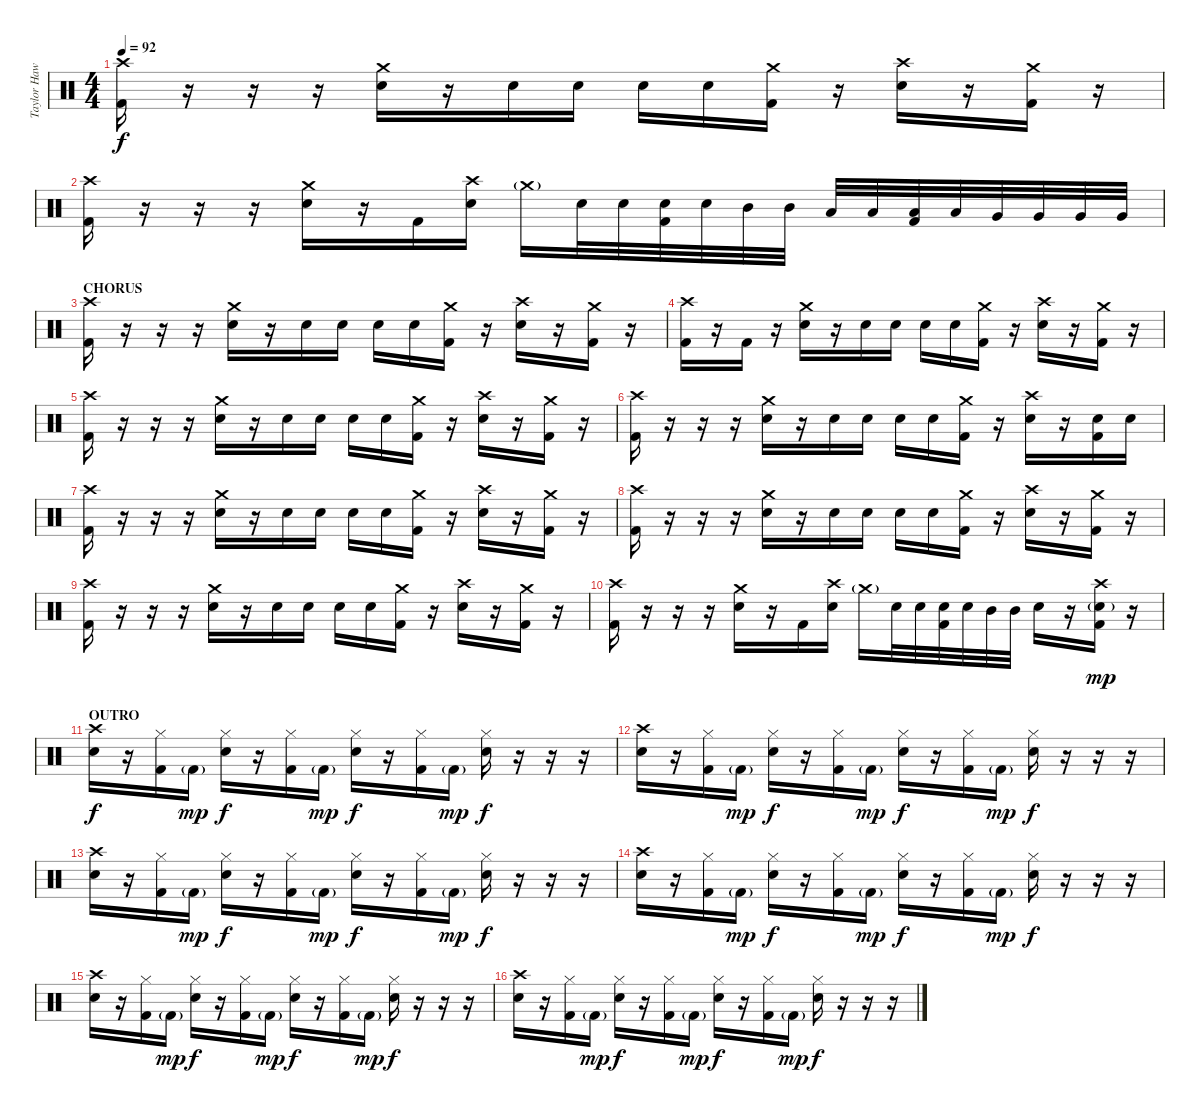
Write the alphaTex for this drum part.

\track ("Taylor Hawkins (Drums)" "Taylor Haw") {instrument percussion}
\staff {score}
\articulation defaults
\ts (4 4)
\tempo 92
\clef neutral
\ks c
("Crash high (hit)" "Kick (hit) 2").16{dy f} r.16 r.16 r.16 ("Crash medium (hit)" "Electric Snare (hit)").16 r.16 "Electric Snare (hit)".16 "Electric Snare (hit)".16 "Electric Snare (hit)".16 "Electric Snare (hit)".16 ("Crash medium (hit)" "Kick (hit) 2").16 r.16 ("Crash high (hit)" "Electric Snare (hit)").16 r.16 ("Crash medium (hit)" "Kick (hit) 2").16 r.16 |
("Crash high (hit)" "Kick (hit) 2").16 r.16 r.16 r.16 ("Crash medium (hit)" "Electric Snare (hit)").16 r.16 "Kick (hit) 2".16 ("Crash high (hit)" "Electric Snare (hit)").16 "Crash medium (hit)"{g}.16 "Electric Snare (hit)".32 "Electric Snare (hit)".32 ("Electric Snare (hit)" "Kick (hit) 2").32 "Electric Snare (hit)".32 "Mid Tom (hit)".32 "Mid Tom (hit)".32 "Low Tom (hit)".32 "Low Tom (hit)".32 ("Low Tom (hit)" "Kick (hit) 2").32 "Low Tom (hit)".32 "Very Low Tom (hit)".32 "Very Low Tom (hit)".32 "Very Low Tom (hit)".32 "Very Low Tom (hit)".32 |
\section ("" "CHORUS")
("Crash high (hit)" "Kick (hit) 2").16 r.16 r.16 r.16 ("Crash medium (hit)" "Electric Snare (hit)").16 r.16 "Electric Snare (hit)".16 "Electric Snare (hit)".16 "Electric Snare (hit)".16 "Electric Snare (hit)".16 ("Crash medium (hit)" "Kick (hit) 2").16 r.16 ("Crash high (hit)" "Electric Snare (hit)").16 r.16 ("Crash medium (hit)" "Kick (hit) 2").16 r.16 |
("Crash high (hit)" "Kick (hit) 2").16 r.16 "Kick (hit) 2".16 r.16 ("Crash medium (hit)" "Electric Snare (hit)").16 r.16 "Electric Snare (hit)".16 "Electric Snare (hit)".16 "Electric Snare (hit)".16 "Electric Snare (hit)".16 ("Crash medium (hit)" "Kick (hit) 2").16 r.16 ("Crash high (hit)" "Electric Snare (hit)").16 r.16 ("Crash medium (hit)" "Kick (hit) 2").16 r.16 |
("Crash high (hit)" "Kick (hit) 2").16 r.16 r.16 r.16 ("Crash medium (hit)" "Electric Snare (hit)").16 r.16 "Electric Snare (hit)".16 "Electric Snare (hit)".16 "Electric Snare (hit)".16 "Electric Snare (hit)".16 ("Crash medium (hit)" "Kick (hit) 2").16 r.16 ("Crash high (hit)" "Electric Snare (hit)").16 r.16 ("Crash medium (hit)" "Kick (hit) 2").16 r.16 |
("Crash high (hit)" "Kick (hit) 2").16 r.16 r.16 r.16 ("Crash medium (hit)" "Electric Snare (hit)").16 r.16 "Electric Snare (hit)".16 "Electric Snare (hit)".16 "Electric Snare (hit)".16 "Electric Snare (hit)".16 ("Crash medium (hit)" "Kick (hit) 2").16 r.16 ("Crash high (hit)" "Electric Snare (hit)").16 r.16 ("Electric Snare (hit)" "Kick (hit) 2").16 "Electric Snare (hit)".16 |
("Crash high (hit)" "Kick (hit) 2").16 r.16 r.16 r.16 ("Crash medium (hit)" "Electric Snare (hit)").16 r.16 "Electric Snare (hit)".16 "Electric Snare (hit)".16 "Electric Snare (hit)".16 "Electric Snare (hit)".16 ("Crash medium (hit)" "Kick (hit) 2").16 r.16 ("Crash high (hit)" "Electric Snare (hit)").16 r.16 ("Crash medium (hit)" "Kick (hit) 2").16 r.16 |
("Crash high (hit)" "Kick (hit) 2").16 r.16 r.16 r.16 ("Crash medium (hit)" "Electric Snare (hit)").16 r.16 "Electric Snare (hit)".16 "Electric Snare (hit)".16 "Electric Snare (hit)".16 "Electric Snare (hit)".16 ("Crash medium (hit)" "Kick (hit) 2").16 r.16 ("Crash high (hit)" "Electric Snare (hit)").16 r.16 ("Crash medium (hit)" "Kick (hit) 2").16 r.16 |
("Crash high (hit)" "Kick (hit) 2").16 r.16 r.16 r.16 ("Crash medium (hit)" "Electric Snare (hit)").16 r.16 "Electric Snare (hit)".16 "Electric Snare (hit)".16 "Electric Snare (hit)".16 "Electric Snare (hit)".16 ("Crash medium (hit)" "Kick (hit) 2").16 r.16 ("Crash high (hit)" "Electric Snare (hit)").16 r.16 ("Crash medium (hit)" "Kick (hit) 2").16 r.16 |
("Crash high (hit)" "Kick (hit) 2").16 r.16 r.16 r.16 ("Crash medium (hit)" "Electric Snare (hit)").16 r.16 "Kick (hit) 2".16 ("Crash high (hit)" "Electric Snare (hit)").16 "Crash medium (hit)"{g}.16 "Electric Snare (hit)".32 "Electric Snare (hit)".32 ("Electric Snare (hit)" "Kick (hit) 2").32 "Electric Snare (hit)".32 "Mid Tom (hit)".32 "Mid Tom (hit)".32 "Electric Snare (hit)".16 r.16 ("Crash high (hit)" "Electric Snare (hit)"{g} "Kick (hit) 2").16{dy mp} r.16 |
\section ("" "OUTRO")
("Crash high (hit)" "Electric Snare (hit)").16{dy f} r.16 ("Hi-Hat (closed)" "Kick (hit) 2").16 "Kick (hit) 2"{g}.16{dy mp} ("Hi-Hat (closed)" "Electric Snare (hit)").16{dy f} r.16 ("Hi-Hat (closed)" "Kick (hit) 2").16 "Kick (hit) 2"{g}.16{dy mp} ("Hi-Hat (closed)" "Electric Snare (hit)").16{dy f} r.16 ("Hi-Hat (closed)" "Kick (hit) 2").16 "Kick (hit) 2"{g}.16{dy mp} ("Hi-Hat (closed)" "Electric Snare (hit)").16{dy f} r.16 r.16 r.16 |
("Crash high (hit)" "Electric Snare (hit)").16 r.16 ("Hi-Hat (closed)" "Kick (hit) 2").16 "Kick (hit) 2"{g}.16{dy mp} ("Hi-Hat (closed)" "Electric Snare (hit)").16{dy f} r.16 ("Hi-Hat (closed)" "Kick (hit) 2").16 "Kick (hit) 2"{g}.16{dy mp} ("Hi-Hat (closed)" "Electric Snare (hit)").16{dy f} r.16 ("Hi-Hat (closed)" "Kick (hit) 2").16 "Kick (hit) 2"{g}.16{dy mp} ("Hi-Hat (closed)" "Electric Snare (hit)").16{dy f} r.16 r.16 r.16 |
("Crash high (hit)" "Electric Snare (hit)").16 r.16 ("Hi-Hat (closed)" "Kick (hit) 2").16 "Kick (hit) 2"{g}.16{dy mp} ("Hi-Hat (closed)" "Electric Snare (hit)").16{dy f} r.16 ("Hi-Hat (closed)" "Kick (hit) 2").16 "Kick (hit) 2"{g}.16{dy mp} ("Hi-Hat (closed)" "Electric Snare (hit)").16{dy f} r.16 ("Hi-Hat (closed)" "Kick (hit) 2").16 "Kick (hit) 2"{g}.16{dy mp} ("Hi-Hat (closed)" "Electric Snare (hit)").16{dy f} r.16 r.16 r.16 |
("Crash high (hit)" "Electric Snare (hit)").16 r.16 ("Hi-Hat (closed)" "Kick (hit) 2").16 "Kick (hit) 2"{g}.16{dy mp} ("Hi-Hat (closed)" "Electric Snare (hit)").16{dy f} r.16 ("Hi-Hat (closed)" "Kick (hit) 2").16 "Kick (hit) 2"{g}.16{dy mp} ("Hi-Hat (closed)" "Electric Snare (hit)").16{dy f} r.16 ("Hi-Hat (closed)" "Kick (hit) 2").16 "Kick (hit) 2"{g}.16{dy mp} ("Hi-Hat (closed)" "Electric Snare (hit)").16{dy f} r.16 r.16 r.16 |
("Crash high (hit)" "Electric Snare (hit)").16 r.16 ("Hi-Hat (closed)" "Kick (hit) 2").16 "Kick (hit) 2"{g}.16{dy mp} ("Hi-Hat (closed)" "Electric Snare (hit)").16{dy f} r.16 ("Hi-Hat (closed)" "Kick (hit) 2").16 "Kick (hit) 2"{g}.16{dy mp} ("Hi-Hat (closed)" "Electric Snare (hit)").16{dy f} r.16 ("Hi-Hat (closed)" "Kick (hit) 2").16 "Kick (hit) 2"{g}.16{dy mp} ("Hi-Hat (closed)" "Electric Snare (hit)").16{dy f} r.16 r.16 r.16 |
("Crash high (hit)" "Electric Snare (hit)").16 r.16 ("Hi-Hat (closed)" "Kick (hit) 2").16 "Kick (hit) 2"{g}.16{dy mp} ("Hi-Hat (closed)" "Electric Snare (hit)").16{dy f} r.16 ("Hi-Hat (closed)" "Kick (hit) 2").16 "Kick (hit) 2"{g}.16{dy mp} ("Hi-Hat (closed)" "Electric Snare (hit)").16{dy f} r.16 ("Hi-Hat (closed)" "Kick (hit) 2").16 "Kick (hit) 2"{g}.16{dy mp} ("Hi-Hat (closed)" "Electric Snare (hit)").16{dy f} r.16 r.16 r.16
